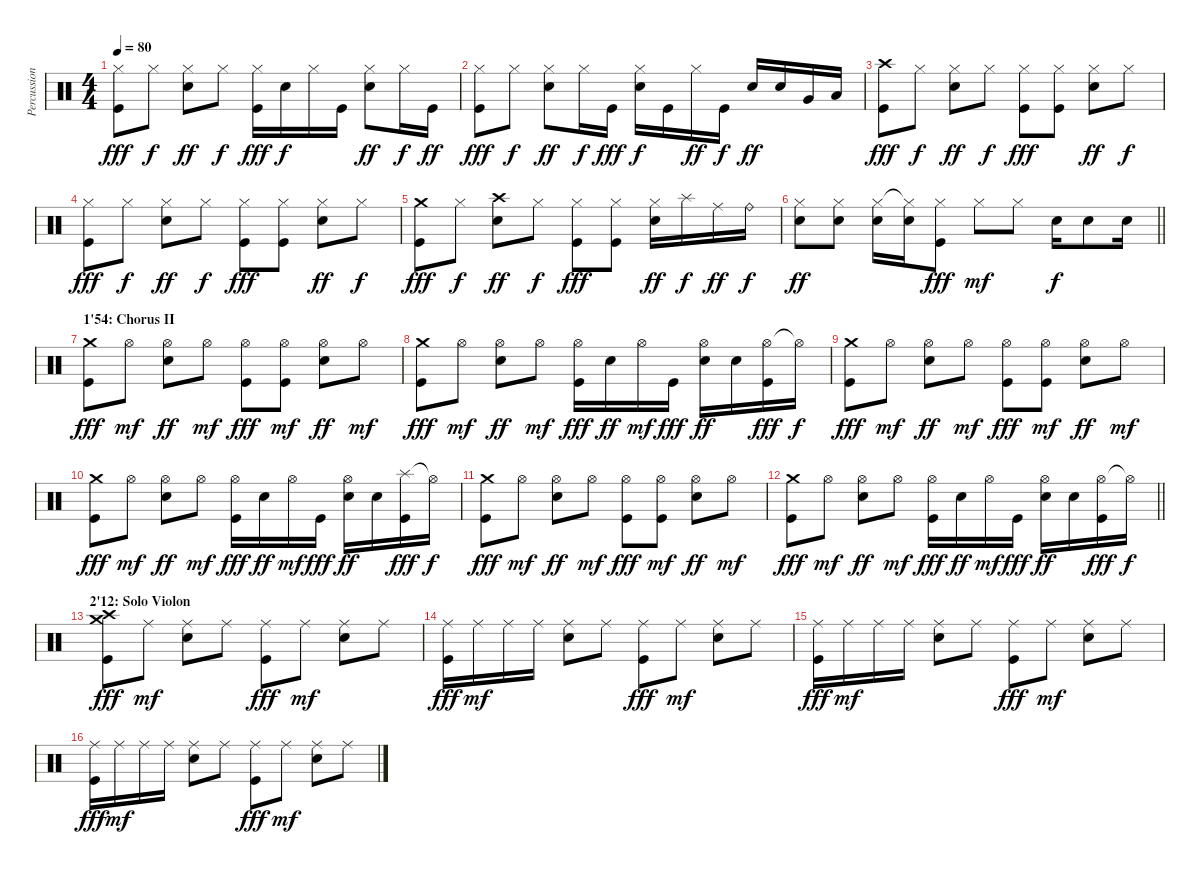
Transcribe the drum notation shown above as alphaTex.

\track ("Percussions" "Percussion") {instrument percussion}
\staff {score}
\articulation defaults
\ts (4 4)
\tempo 80
\clef neutral
\ks c
("Hi-Hat (closed)" "Kick (hit)").8{dy fff} "Hi-Hat (closed)".8{dy f} ("Hi-Hat (closed)" "Snare (hit) 2").8{dy ff} "Hi-Hat (closed)".8{dy f} ("Hi-Hat (closed)" "Kick (hit)").16{dy fff} "Snare (hit) 2".16{dy f} "Hi-Hat (closed)".16 "Kick (hit)".16 ("Hi-Hat (closed)" "Snare (hit) 2").8{dy ff} "Hi-Hat (closed)".16{dy f} "Kick (hit)".16{dy ff} |
("Hi-Hat (closed)" "Kick (hit)").8{dy fff} "Hi-Hat (closed)".8{dy f} ("Hi-Hat (closed)" "Snare (hit) 2").8{dy ff} "Hi-Hat (closed)".16{dy f} "Kick (hit)".16{dy fff} ("Hi-Hat (closed)" "Snare (hit) 2").16{dy f} "Kick (hit)".16 "Hi-Hat (closed)".16{dy ff} "Kick (hit)".16{dy f} "Snare (hit) 2".16{dy ff} "Snare (hit) 2".16 "Very Low Tom (hit)".16 "Low Floor Tom (hit)".16 |
("Crash high (hit)" "Kick (hit)").8{dy fff} "Hi-Hat (closed)".8{dy f} ("Hi-Hat (closed)" "Snare (hit) 2").8{dy ff} "Hi-Hat (closed)".8{dy f} ("Hi-Hat (closed)" "Kick (hit)").8{dy fff} ("Hi-Hat (closed)" "Kick (hit)").8 ("Hi-Hat (closed)" "Snare (hit) 2").8{dy ff} "Hi-Hat (closed)".8{dy f} |
("Hi-Hat (closed)" "Kick (hit)").8{dy fff} "Hi-Hat (closed)".8{dy f} ("Hi-Hat (closed)" "Snare (hit) 2").8{dy ff} "Hi-Hat (closed)".8{dy f} ("Hi-Hat (closed)" "Kick (hit)").8{dy fff} ("Hi-Hat (closed)" "Kick (hit)").8 ("Hi-Hat (closed)" "Snare (hit) 2").8{dy ff} "Hi-Hat (closed)".8{dy f} |
("Crash medium (hit)" "Kick (hit)").8{dy fff} "Hi-Hat (closed)".8{dy f} ("Crash high (hit)" "Snare (hit) 2").8{dy ff} "Hi-Hat (closed)".8{dy f} ("Hi-Hat (closed)" "Kick (hit)").8{dy fff} ("Hi-Hat (closed)" "Kick (hit)").8 ("Hi-Hat (closed)" "Snare (hit) 2").16{dy ff} "Splash (hit)".16{dy f} "Ride (middle)".16{dy ff} "Ride (bell)".16{dy f} |
\barLineRight lightlight
("Hi-Hat (closed)" "Snare (hit) 2").8{dy ff} ("Hi-Hat (closed)" "Snare (hit) 2").8 ("Hi-Hat (closed)" "Snare (hit) 2").16 ("Hi-Hat (closed)"{t} "Snare (hit) 2").16 ("Hi-Hat (closed)" "Kick (hit)").8{dy fff} "Hi-Hat (closed)".8{dy mf} "Hi-Hat (closed)".8 "Snare (hit) 2".16{dy f} "Snare (hit) 2".8 "Snare (hit) 2".16 |
\section ("" "1'54: Chorus II")
("Crash medium (hit)" "Kick (hit)").8{dy fff} "Hi-Hat (open)".8{dy mf} ("Hi-Hat (open)" "Snare (hit) 2").8{dy ff} "Hi-Hat (open)".8{dy mf} ("Hi-Hat (open)" "Kick (hit)").8{dy fff} ("Hi-Hat (open)" "Kick (hit)").8{dy mf} ("Hi-Hat (open)" "Snare (hit) 2").8{dy ff} "Hi-Hat (open)".8{dy mf} |
("Crash medium (hit)" "Kick (hit)").8{dy fff} "Hi-Hat (open)".8{dy mf} ("Hi-Hat (open)" "Snare (hit) 2").8{dy ff} "Hi-Hat (open)".8{dy mf} ("Hi-Hat (open)" "Kick (hit)").16{dy fff} "Snare (hit) 2".16{dy ff} "Hi-Hat (open)".16{dy mf} "Kick (hit)".16{dy fff} ("Hi-Hat (open)" "Snare (hit) 2").16{dy ff} "Snare (hit) 2".16 ("Hi-Hat (open)" "Kick (hit)").16{dy fff} "Hi-Hat (open)"{t}.16{dy f} |
("Crash medium (hit)" "Kick (hit)").8{dy fff} "Hi-Hat (open)".8{dy mf} ("Hi-Hat (open)" "Snare (hit) 2").8{dy ff} "Hi-Hat (open)".8{dy mf} ("Hi-Hat (open)" "Kick (hit)").8{dy fff} ("Hi-Hat (open)" "Kick (hit)").8{dy mf} ("Hi-Hat (open)" "Snare (hit) 2").8{dy ff} "Hi-Hat (open)".8{dy mf} |
("Crash medium (hit)" "Kick (hit)").8{dy fff} "Hi-Hat (open)".8{dy mf} ("Hi-Hat (open)" "Snare (hit) 2").8{dy ff} "Hi-Hat (open)".8{dy mf} ("Hi-Hat (open)" "Kick (hit)").16{dy fff} "Snare (hit) 2".16{dy ff} "Hi-Hat (open)".16{dy mf} "Kick (hit)".16{dy fff} ("Hi-Hat (open)" "Snare (hit) 2").16{dy ff} "Snare (hit) 2".16 ("Splash (hit)" "Kick (hit)").16{dy fff} "Hi-Hat (open)"{t}.16{dy f} |
("Crash medium (hit)" "Kick (hit)").8{dy fff} "Hi-Hat (open)".8{dy mf} ("Hi-Hat (open)" "Snare (hit) 2").8{dy ff} "Hi-Hat (open)".8{dy mf} ("Hi-Hat (open)" "Kick (hit)").8{dy fff} ("Hi-Hat (open)" "Kick (hit)").8{dy mf} ("Hi-Hat (open)" "Snare (hit) 2").8{dy ff} "Hi-Hat (open)".8{dy mf} |
\barLineRight lightlight
("Crash medium (hit)" "Kick (hit)").8{dy fff} "Hi-Hat (open)".8{dy mf} ("Hi-Hat (open)" "Snare (hit) 2").8{dy ff} "Hi-Hat (open)".8{dy mf} ("Hi-Hat (open)" "Kick (hit)").16{dy fff} "Snare (hit) 2".16{dy ff} "Hi-Hat (open)".16{dy mf} "Kick (hit)".16{dy fff} ("Hi-Hat (open)" "Snare (hit) 2").16{dy ff} "Snare (hit) 2".16 ("Hi-Hat (open)" "Kick (hit)").16{dy fff} "Hi-Hat (open)"{t}.16{dy f} |
\section ("" "2'12: Solo Violon")
("Crash medium (hit)" "Crash high (hit)" "Kick (hit)").8{dy fff} "Ride (middle)".8{dy mf} ("Ride (middle)" "Snare (hit) 2").8 "Ride (middle)".8 ("Ride (middle)" "Kick (hit)").8{dy fff} "Ride (middle)".8{dy mf} ("Ride (middle)" "Snare (hit) 2").8 "Ride (middle)".8 |
("Ride (middle)" "Kick (hit)").16{dy fff} "Ride (middle)".16{dy mf} "Ride (middle)".16 "Ride (middle)".16 ("Ride (middle)" "Snare (hit) 2").8 "Ride (middle)".8 ("Ride (middle)" "Kick (hit)").8{dy fff} "Ride (middle)".8{dy mf} ("Ride (middle)" "Snare (hit) 2").8 "Ride (middle)".8 |
("Ride (middle)" "Kick (hit)").16{dy fff} "Ride (middle)".16{dy mf} "Ride (middle)".16 "Ride (middle)".16 ("Ride (middle)" "Snare (hit) 2").8 "Ride (middle)".8 ("Ride (middle)" "Kick (hit)").8{dy fff} "Ride (middle)".8{dy mf} ("Ride (middle)" "Snare (hit) 2").8 "Ride (middle)".8 |
("Ride (middle)" "Kick (hit)").16{dy fff} "Ride (middle)".16{dy mf} "Ride (middle)".16 "Ride (middle)".16 ("Ride (middle)" "Snare (hit) 2").8 "Ride (middle)".8 ("Ride (middle)" "Kick (hit)").8{dy fff} "Ride (middle)".8{dy mf} ("Ride (middle)" "Snare (hit) 2").8 "Ride (middle)".8
